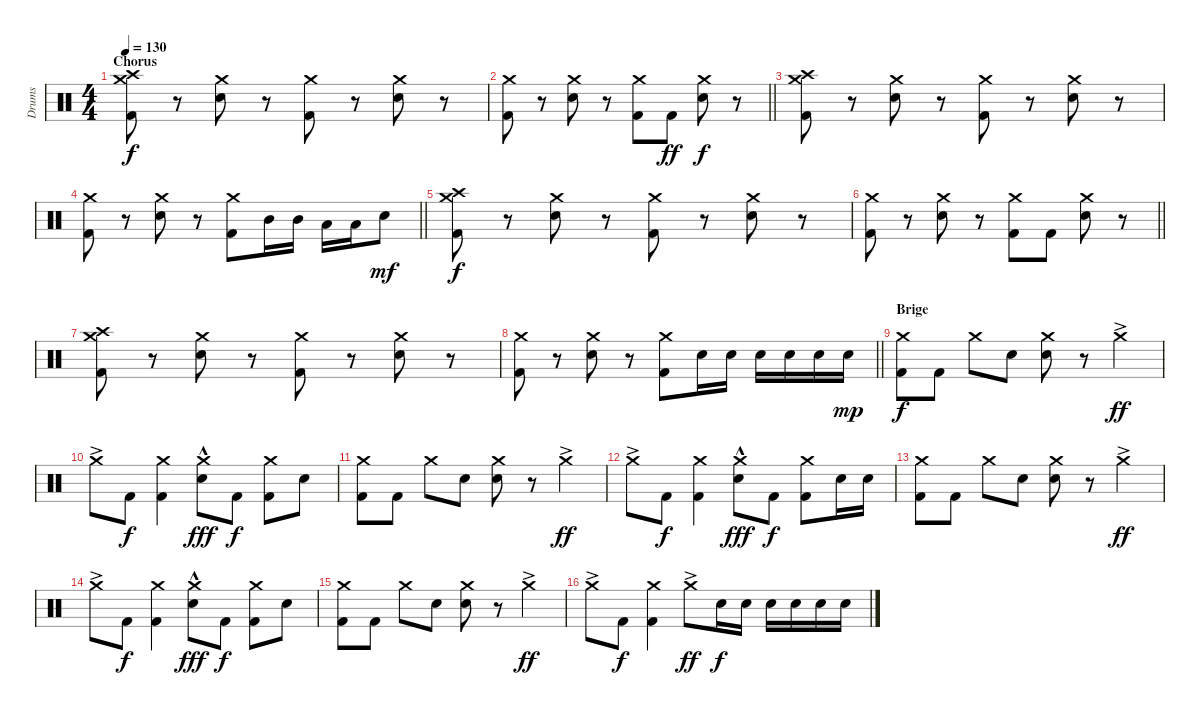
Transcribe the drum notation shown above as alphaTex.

\track ("Drums" "Drums") {instrument percussion}
\staff {score}
\articulation defaults
\ts (4 4)
\section ("" "Chorus")
\tempo 130
\clef neutral
\ks c
("Crash medium (hit)" "Crash high (hit)" "Kick (hit) 2").8{dy f} r.8 ("Crash medium (hit)" "Electric Snare (hit)").8 r.8 ("Crash medium (hit)" "Kick (hit) 2").8 r.8 ("Crash medium (hit)" "Electric Snare (hit)").8 r.8 |
\barLineRight lightlight
("Crash medium (hit)" "Kick (hit) 2").8 r.8 ("Crash medium (hit)" "Electric Snare (hit)").8 r.8 ("Crash medium (hit)" "Kick (hit) 2").8 "Kick (hit) 2".8{dy ff} ("Crash medium (hit)" "Electric Snare (hit)").8{dy f} r.8 |
("Crash medium (hit)" "Crash high (hit)" "Kick (hit) 2").8 r.8 ("Crash medium (hit)" "Electric Snare (hit)").8 r.8 ("Crash medium (hit)" "Kick (hit) 2").8 r.8 ("Crash medium (hit)" "Electric Snare (hit)").8 r.8 |
\barLineRight lightlight
("Crash medium (hit)" "Kick (hit) 2").8 r.8 ("Crash medium (hit)" "Electric Snare (hit)").8 r.8 ("Crash medium (hit)" "Kick (hit) 2").8 "Mid Tom (hit)".16 "Mid Tom (hit)".16 "Low Tom (hit)".16 "Low Tom (hit)".16 "Electric Snare (hit)".8{dy mf} |
("Crash medium (hit)" "Crash high (hit)" "Kick (hit) 2").8{dy f} r.8 ("Crash medium (hit)" "Electric Snare (hit)").8 r.8 ("Crash medium (hit)" "Kick (hit) 2").8 r.8 ("Crash medium (hit)" "Electric Snare (hit)").8 r.8 |
\barLineRight lightlight
("Crash medium (hit)" "Kick (hit) 2").8 r.8 ("Crash medium (hit)" "Electric Snare (hit)").8 r.8 ("Crash medium (hit)" "Kick (hit) 2").8 "Kick (hit) 2".8 ("Crash medium (hit)" "Electric Snare (hit)").8 r.8 |
("Crash medium (hit)" "Crash high (hit)" "Kick (hit) 2").8 r.8 ("Crash medium (hit)" "Electric Snare (hit)").8 r.8 ("Crash medium (hit)" "Kick (hit) 2").8 r.8 ("Crash medium (hit)" "Electric Snare (hit)").8 r.8 |
\barLineRight lightlight
("Crash medium (hit)" "Kick (hit) 2").8 r.8 ("Crash medium (hit)" "Electric Snare (hit)").8 r.8 ("Crash medium (hit)" "Kick (hit) 2").8 "Electric Snare (hit)".16 "Electric Snare (hit)".16 "Electric Snare (hit)".16 "Electric Snare (hit)".16 "Electric Snare (hit)".16 "Electric Snare (hit)".16{dy mp} |
\section ("" "Brige")
("Crash medium (hit)" "Kick (hit) 2").8{dy f} "Kick (hit) 2".8 "Crash medium (hit)".8 "Electric Snare (hit)".8 ("Crash medium (hit)" "Electric Snare (hit)").8 r.8 "Crash medium (hit)"{ac}.4{dy ff} |
"Crash medium (hit)"{ac}.8 "Kick (hit) 2".8{dy f} ("Crash medium (hit)" "Kick (hit) 2").4 ("Crash medium (hit)" "Electric Snare (hit)"{hac}).8{dy fff} "Kick (hit) 2".8{dy f} ("Crash medium (hit)" "Kick (hit) 2").8 "Electric Snare (hit)".8 |
("Crash medium (hit)" "Kick (hit) 2").8 "Kick (hit) 2".8 "Crash medium (hit)".8 "Electric Snare (hit)".8 ("Crash medium (hit)" "Electric Snare (hit)").8 r.8 "Crash medium (hit)"{ac}.4{dy ff} |
"Crash medium (hit)"{ac}.8 "Kick (hit) 2".8{dy f} ("Crash medium (hit)" "Kick (hit) 2").4 ("Crash medium (hit)" "Electric Snare (hit)"{hac}).8{dy fff} "Kick (hit) 2".8{dy f} ("Crash medium (hit)" "Kick (hit) 2").8 "Electric Snare (hit)".16 "Electric Snare (hit)".16 |
("Crash medium (hit)" "Kick (hit) 2").8 "Kick (hit) 2".8 "Crash medium (hit)".8 "Electric Snare (hit)".8 ("Crash medium (hit)" "Electric Snare (hit)").8 r.8 "Crash medium (hit)"{ac}.4{dy ff} |
"Crash medium (hit)"{ac}.8 "Kick (hit) 2".8{dy f} ("Crash medium (hit)" "Kick (hit) 2").4 ("Crash medium (hit)" "Electric Snare (hit)"{hac}).8{dy fff} "Kick (hit) 2".8{dy f} ("Crash medium (hit)" "Kick (hit) 2").8 "Electric Snare (hit)".8 |
("Crash medium (hit)" "Kick (hit) 2").8 "Kick (hit) 2".8 "Crash medium (hit)".8 "Electric Snare (hit)".8 ("Crash medium (hit)" "Electric Snare (hit)").8 r.8 "Crash medium (hit)"{ac}.4{dy ff} |
"Crash medium (hit)"{ac}.8 "Kick (hit) 2".8{dy f} ("Crash medium (hit)" "Kick (hit) 2").4 "Crash medium (hit)"{ac}.8{dy ff} "Electric Snare (hit)".16{dy f} "Electric Snare (hit)".16 "Electric Snare (hit)".16 "Electric Snare (hit)".16 "Electric Snare (hit)".16 "Electric Snare (hit)".16
